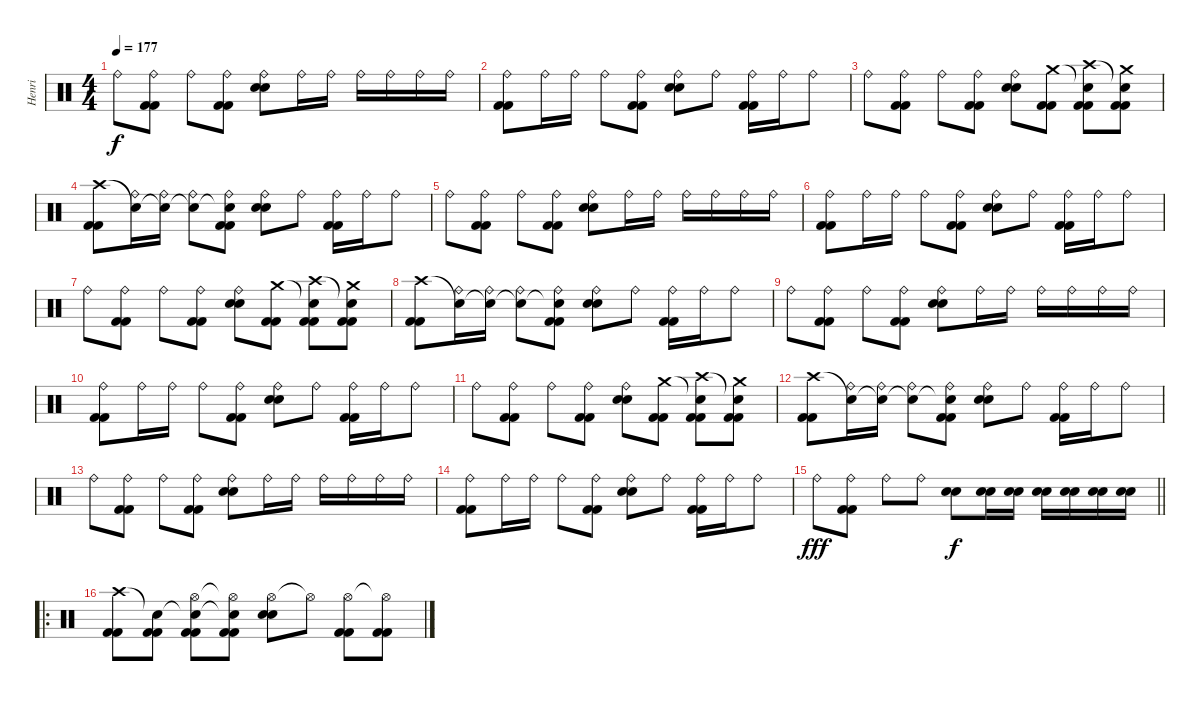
\track ("Henri" "Henri") {instrument percussion}
\staff {score}
\articulation defaults
\ts (4 4)
\tempo 177
\clef neutral
\ks c "Ride (bell)".8{dy f}
("Ride (bell)" "Kick (hit) 2" "Kick (hit) 2").8 "Ride (bell)".8 ("Ride (bell)" "Kick (hit) 2" "Kick (hit) 2").8 ("Ride (bell)" "Snare (hit) 2" "Snare (hit) 2").8 "Ride (bell)".16 "Ride (bell)".16 "Ride (bell)".16 "Ride (bell)".16 "Ride (bell)".16 "Ride (bell)".16 |
("Ride (bell)" "Kick (hit) 2" "Kick (hit) 2").8 "Ride (bell)".16 "Ride (bell)".16 "Ride (bell)".8 ("Ride (bell)" "Kick (hit) 2" "Kick (hit) 2").8 ("Ride (bell)" "Snare (hit) 2" "Snare (hit) 2").8 "Ride (bell)".8 ("Ride (bell)" "Kick (hit) 2" "Kick (hit) 2").16 "Ride (bell)".16 "Ride (bell)".8 |
"Ride (bell)".8 ("Ride (bell)" "Kick (hit) 2" "Kick (hit) 2").8 "Ride (bell)".8 ("Ride (bell)" "Kick (hit) 2" "Kick (hit) 2").8 ("Ride (bell)" "Snare (hit) 2" "Snare (hit) 2").8 ("Crash medium (hit)" "Kick (hit) 2" "Kick (hit) 2").8 ("Snare (hit)"{t} "Crash high (hit)" "Kick (hit) 2" "Kick (hit) 2").8 ("Crash medium (hit)" "Snare (hit)"{t} "Kick (hit) 2" "Kick (hit) 2").8 |
("Crash high (hit)" "Kick (hit) 2" "Kick (hit) 2").8 ("Snare (hit)"{t} "Ride (bell)").16 ("Snare (hit)"{t} "Ride (bell)").16 ("Snare (hit)"{t} "Ride (bell)").8 ("Snare (hit)"{t} "Ride (bell)" "Kick (hit) 2" "Kick (hit) 2").8 ("Ride (bell)" "Snare (hit) 2" "Snare (hit) 2").8 "Ride (bell)".8 ("Ride (bell)" "Kick (hit) 2" "Kick (hit) 2").16 "Ride (bell)".16 "Ride (bell)".8 |
"Ride (bell)".8 ("Ride (bell)" "Kick (hit) 2" "Kick (hit) 2").8 "Ride (bell)".8 ("Ride (bell)" "Kick (hit) 2" "Kick (hit) 2").8 ("Ride (bell)" "Snare (hit) 2" "Snare (hit) 2").8 "Ride (bell)".16 "Ride (bell)".16 "Ride (bell)".16 "Ride (bell)".16 "Ride (bell)".16 "Ride (bell)".16 |
("Ride (bell)" "Kick (hit) 2" "Kick (hit) 2").8 "Ride (bell)".16 "Ride (bell)".16 "Ride (bell)".8 ("Ride (bell)" "Kick (hit) 2" "Kick (hit) 2").8 ("Ride (bell)" "Snare (hit) 2" "Snare (hit) 2").8 "Ride (bell)".8 ("Ride (bell)" "Kick (hit) 2" "Kick (hit) 2").16 "Ride (bell)".16 "Ride (bell)".8 |
"Ride (bell)".8 ("Ride (bell)" "Kick (hit) 2" "Kick (hit) 2").8 "Ride (bell)".8 ("Ride (bell)" "Kick (hit) 2" "Kick (hit) 2").8 ("Ride (bell)" "Snare (hit) 2" "Snare (hit) 2").8 ("Crash medium (hit)" "Kick (hit) 2" "Kick (hit) 2").8 ("Snare (hit)"{t} "Crash high (hit)" "Kick (hit) 2" "Kick (hit) 2").8 ("Crash medium (hit)" "Snare (hit)"{t} "Kick (hit) 2" "Kick (hit) 2").8 |
("Crash high (hit)" "Kick (hit) 2" "Kick (hit) 2").8 ("Snare (hit)"{t} "Ride (bell)").16 ("Snare (hit)"{t} "Ride (bell)").16 ("Snare (hit)"{t} "Ride (bell)").8 ("Snare (hit)"{t} "Ride (bell)" "Kick (hit) 2" "Kick (hit) 2").8 ("Ride (bell)" "Snare (hit) 2" "Snare (hit) 2").8 "Ride (bell)".8 ("Ride (bell)" "Kick (hit) 2" "Kick (hit) 2").16 "Ride (bell)".16 "Ride (bell)".8 |
"Ride (bell)".8 ("Ride (bell)" "Kick (hit) 2" "Kick (hit) 2").8 "Ride (bell)".8 ("Ride (bell)" "Kick (hit) 2" "Kick (hit) 2").8 ("Ride (bell)" "Snare (hit) 2" "Snare (hit) 2").8 "Ride (bell)".16 "Ride (bell)".16 "Ride (bell)".16 "Ride (bell)".16 "Ride (bell)".16 "Ride (bell)".16 |
("Ride (bell)" "Kick (hit) 2" "Kick (hit) 2").8 "Ride (bell)".16 "Ride (bell)".16 "Ride (bell)".8 ("Ride (bell)" "Kick (hit) 2" "Kick (hit) 2").8 ("Ride (bell)" "Snare (hit) 2" "Snare (hit) 2").8 "Ride (bell)".8 ("Ride (bell)" "Kick (hit) 2" "Kick (hit) 2").16 "Ride (bell)".16 "Ride (bell)".8 |
"Ride (bell)".8 ("Ride (bell)" "Kick (hit) 2" "Kick (hit) 2").8 "Ride (bell)".8 ("Ride (bell)" "Kick (hit) 2" "Kick (hit) 2").8 ("Ride (bell)" "Snare (hit) 2" "Snare (hit) 2").8 ("Crash medium (hit)" "Kick (hit) 2" "Kick (hit) 2").8 ("Snare (hit)"{t} "Crash high (hit)" "Kick (hit) 2" "Kick (hit) 2").8 ("Crash medium (hit)" "Snare (hit)"{t} "Kick (hit) 2" "Kick (hit) 2").8 |
("Crash high (hit)" "Kick (hit) 2" "Kick (hit) 2").8 ("Snare (hit)"{t} "Ride (bell)").16 ("Snare (hit)"{t} "Ride (bell)").16 ("Snare (hit)"{t} "Ride (bell)").8 ("Snare (hit)"{t} "Ride (bell)" "Kick (hit) 2" "Kick (hit) 2").8 ("Ride (bell)" "Snare (hit) 2" "Snare (hit) 2").8 "Ride (bell)".8 ("Ride (bell)" "Kick (hit) 2" "Kick (hit) 2").16 "Ride (bell)".16 "Ride (bell)".8 |
"Ride (bell)".8 ("Ride (bell)" "Kick (hit) 2" "Kick (hit) 2").8 "Ride (bell)".8 ("Ride (bell)" "Kick (hit) 2" "Kick (hit) 2").8 ("Ride (bell)" "Snare (hit) 2" "Snare (hit) 2").8 "Ride (bell)".16 "Ride (bell)".16 "Ride (bell)".16 "Ride (bell)".16 "Ride (bell)".16 "Ride (bell)".16 |
("Ride (bell)" "Kick (hit) 2" "Kick (hit) 2").8 "Ride (bell)".16 "Ride (bell)".16 "Ride (bell)".8 ("Ride (bell)" "Kick (hit) 2" "Kick (hit) 2").8 ("Ride (bell)" "Snare (hit) 2" "Snare (hit) 2").8 "Ride (bell)".8 ("Ride (bell)" "Kick (hit) 2" "Kick (hit) 2").16 "Ride (bell)".16 "Ride (bell)".8 |
\barLineRight lightlight "Ride (bell)".8{dy fff}
("Ride (bell)" "Kick (hit) 2" "Kick (hit) 2").8 "Ride (bell)".8 "Ride (bell)".8 ("Snare (hit) 2" "Snare (hit) 2").8{dy f} ("Snare (hit) 2" "Snare (hit) 2").16 ("Snare (hit) 2" "Snare (hit) 2").16 ("Snare (hit) 2" "Snare (hit) 2").16 ("Snare (hit) 2" "Snare (hit) 2").16 ("Snare (hit) 2" "Snare (hit) 2").16 ("Snare (hit) 2" "Snare (hit) 2").16 |
\ro
("Crash high (hit)" "Kick (hit) 2" "Kick (hit) 2").8 ("Snare (hit)"{t} "Kick (hit) 2" "Kick (hit) 2").8 ("Snare (hit)"{t} "Hi-Hat (open)" "Kick (hit) 2" "Kick (hit) 2").8 ("Snare (hit)"{t} "Hi-Hat (open)"{t} "Kick (hit) 2" "Kick (hit) 2").8 ("Hi-Hat (open)" "Snare (hit) 2" "Snare (hit) 2").8 "Hi-Hat (open)"{t}.8 ("Hi-Hat (open)" "Kick (hit) 2" "Kick (hit) 2").8 ("Hi-Hat (open)"{t} "Kick (hit) 2" "Kick (hit) 2").8
